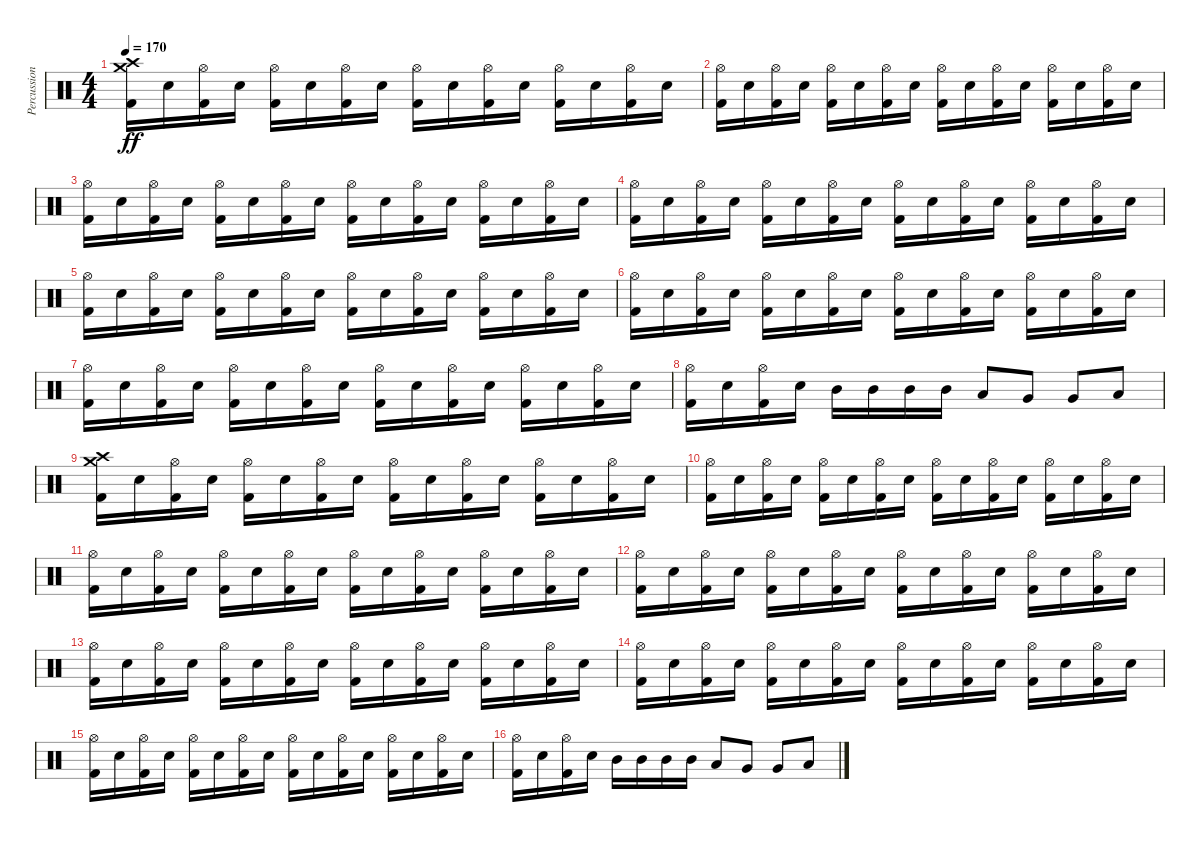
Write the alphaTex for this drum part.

\track ("Percussion" "Percussion") {instrument percussion}
\staff {score}
\articulation defaults
\ts (4 4)
\tempo 170
\clef neutral
\ks c
("Kick (hit) 2" "Crash medium (hit)" "Crash high (hit)").16{dy ff} "Electric Snare (hit)".16 ("Kick (hit) 2" "Hi-Hat (open)").16 "Electric Snare (hit)".16 ("Kick (hit) 2" "Hi-Hat (open)").16 "Electric Snare (hit)".16 ("Kick (hit) 2" "Hi-Hat (open)").16 "Electric Snare (hit)".16 ("Kick (hit) 2" "Hi-Hat (open)").16 "Electric Snare (hit)".16 ("Kick (hit) 2" "Hi-Hat (open)").16 "Electric Snare (hit)".16 ("Kick (hit) 2" "Hi-Hat (open)").16 "Electric Snare (hit)".16 ("Kick (hit) 2" "Hi-Hat (open)").16 "Electric Snare (hit)".16 |
("Kick (hit) 2" "Hi-Hat (open)").16 "Electric Snare (hit)".16 ("Kick (hit) 2" "Hi-Hat (open)").16 "Electric Snare (hit)".16 ("Kick (hit) 2" "Hi-Hat (open)").16 "Electric Snare (hit)".16 ("Kick (hit) 2" "Hi-Hat (open)").16 "Electric Snare (hit)".16 ("Kick (hit) 2" "Hi-Hat (open)").16 "Electric Snare (hit)".16 ("Kick (hit) 2" "Hi-Hat (open)").16 "Electric Snare (hit)".16 ("Kick (hit) 2" "Hi-Hat (open)").16 "Electric Snare (hit)".16 ("Kick (hit) 2" "Hi-Hat (open)").16 "Electric Snare (hit)".16 |
("Kick (hit) 2" "Hi-Hat (open)").16 "Electric Snare (hit)".16 ("Kick (hit) 2" "Hi-Hat (open)").16 "Electric Snare (hit)".16 ("Kick (hit) 2" "Hi-Hat (open)").16 "Electric Snare (hit)".16 ("Kick (hit) 2" "Hi-Hat (open)").16 "Electric Snare (hit)".16 ("Kick (hit) 2" "Hi-Hat (open)").16 "Electric Snare (hit)".16 ("Kick (hit) 2" "Hi-Hat (open)").16 "Electric Snare (hit)".16 ("Kick (hit) 2" "Hi-Hat (open)").16 "Electric Snare (hit)".16 ("Kick (hit) 2" "Hi-Hat (open)").16 "Electric Snare (hit)".16 |
("Kick (hit) 2" "Hi-Hat (open)").16 "Electric Snare (hit)".16 ("Kick (hit) 2" "Hi-Hat (open)").16 "Electric Snare (hit)".16 ("Kick (hit) 2" "Hi-Hat (open)").16 "Electric Snare (hit)".16 ("Kick (hit) 2" "Hi-Hat (open)").16 "Electric Snare (hit)".16 ("Kick (hit) 2" "Hi-Hat (open)").16 "Electric Snare (hit)".16 ("Kick (hit) 2" "Hi-Hat (open)").16 "Electric Snare (hit)".16 ("Kick (hit) 2" "Hi-Hat (open)").16 "Electric Snare (hit)".16 ("Kick (hit) 2" "Hi-Hat (open)").16 "Electric Snare (hit)".16 |
("Kick (hit) 2" "Hi-Hat (open)").16 "Electric Snare (hit)".16 ("Kick (hit) 2" "Hi-Hat (open)").16 "Electric Snare (hit)".16 ("Kick (hit) 2" "Hi-Hat (open)").16 "Electric Snare (hit)".16 ("Kick (hit) 2" "Hi-Hat (open)").16 "Electric Snare (hit)".16 ("Kick (hit) 2" "Hi-Hat (open)").16 "Electric Snare (hit)".16 ("Kick (hit) 2" "Hi-Hat (open)").16 "Electric Snare (hit)".16 ("Kick (hit) 2" "Hi-Hat (open)").16 "Electric Snare (hit)".16 ("Kick (hit) 2" "Hi-Hat (open)").16 "Electric Snare (hit)".16 |
("Kick (hit) 2" "Hi-Hat (open)").16 "Electric Snare (hit)".16 ("Kick (hit) 2" "Hi-Hat (open)").16 "Electric Snare (hit)".16 ("Kick (hit) 2" "Hi-Hat (open)").16 "Electric Snare (hit)".16 ("Kick (hit) 2" "Hi-Hat (open)").16 "Electric Snare (hit)".16 ("Kick (hit) 2" "Hi-Hat (open)").16 "Electric Snare (hit)".16 ("Kick (hit) 2" "Hi-Hat (open)").16 "Electric Snare (hit)".16 ("Kick (hit) 2" "Hi-Hat (open)").16 "Electric Snare (hit)".16 ("Kick (hit) 2" "Hi-Hat (open)").16 "Electric Snare (hit)".16 |
("Kick (hit) 2" "Hi-Hat (open)").16 "Electric Snare (hit)".16 ("Kick (hit) 2" "Hi-Hat (open)").16 "Electric Snare (hit)".16 ("Kick (hit) 2" "Hi-Hat (open)").16 "Electric Snare (hit)".16 ("Kick (hit) 2" "Hi-Hat (open)").16 "Electric Snare (hit)".16 ("Kick (hit) 2" "Hi-Hat (open)").16 "Electric Snare (hit)".16 ("Kick (hit) 2" "Hi-Hat (open)").16 "Electric Snare (hit)".16 ("Kick (hit) 2" "Hi-Hat (open)").16 "Electric Snare (hit)".16 ("Kick (hit) 2" "Hi-Hat (open)").16 "Electric Snare (hit)".16 |
("Kick (hit) 2" "Hi-Hat (open)").16 "Electric Snare (hit)".16 ("Kick (hit) 2" "Hi-Hat (open)").16 "Electric Snare (hit)".16 "Mid Tom (hit)".16 "Mid Tom (hit)".16 "Mid Tom (hit)".16 "Mid Tom (hit)".16 "Low Tom (hit)".8 "Very Low Tom (hit)".8 "Very Low Tom (hit)".8 "Low Floor Tom (hit)".8 |
("Kick (hit) 2" "Crash medium (hit)" "Crash high (hit)").16 "Electric Snare (hit)".16 ("Kick (hit) 2" "Hi-Hat (open)").16 "Electric Snare (hit)".16 ("Kick (hit) 2" "Hi-Hat (open)").16 "Electric Snare (hit)".16 ("Kick (hit) 2" "Hi-Hat (open)").16 "Electric Snare (hit)".16 ("Kick (hit) 2" "Hi-Hat (open)").16 "Electric Snare (hit)".16 ("Kick (hit) 2" "Hi-Hat (open)").16 "Electric Snare (hit)".16 ("Kick (hit) 2" "Hi-Hat (open)").16 "Electric Snare (hit)".16 ("Kick (hit) 2" "Hi-Hat (open)").16 "Electric Snare (hit)".16 |
("Kick (hit) 2" "Hi-Hat (open)").16 "Electric Snare (hit)".16 ("Kick (hit) 2" "Hi-Hat (open)").16 "Electric Snare (hit)".16 ("Kick (hit) 2" "Hi-Hat (open)").16 "Electric Snare (hit)".16 ("Kick (hit) 2" "Hi-Hat (open)").16 "Electric Snare (hit)".16 ("Kick (hit) 2" "Hi-Hat (open)").16 "Electric Snare (hit)".16 ("Kick (hit) 2" "Hi-Hat (open)").16 "Electric Snare (hit)".16 ("Kick (hit) 2" "Hi-Hat (open)").16 "Electric Snare (hit)".16 ("Kick (hit) 2" "Hi-Hat (open)").16 "Electric Snare (hit)".16 |
("Kick (hit) 2" "Hi-Hat (open)").16 "Electric Snare (hit)".16 ("Kick (hit) 2" "Hi-Hat (open)").16 "Electric Snare (hit)".16 ("Kick (hit) 2" "Hi-Hat (open)").16 "Electric Snare (hit)".16 ("Kick (hit) 2" "Hi-Hat (open)").16 "Electric Snare (hit)".16 ("Kick (hit) 2" "Hi-Hat (open)").16 "Electric Snare (hit)".16 ("Kick (hit) 2" "Hi-Hat (open)").16 "Electric Snare (hit)".16 ("Kick (hit) 2" "Hi-Hat (open)").16 "Electric Snare (hit)".16 ("Kick (hit) 2" "Hi-Hat (open)").16 "Electric Snare (hit)".16 |
("Kick (hit) 2" "Hi-Hat (open)").16 "Electric Snare (hit)".16 ("Kick (hit) 2" "Hi-Hat (open)").16 "Electric Snare (hit)".16 ("Kick (hit) 2" "Hi-Hat (open)").16 "Electric Snare (hit)".16 ("Kick (hit) 2" "Hi-Hat (open)").16 "Electric Snare (hit)".16 ("Kick (hit) 2" "Hi-Hat (open)").16 "Electric Snare (hit)".16 ("Kick (hit) 2" "Hi-Hat (open)").16 "Electric Snare (hit)".16 ("Kick (hit) 2" "Hi-Hat (open)").16 "Electric Snare (hit)".16 ("Kick (hit) 2" "Hi-Hat (open)").16 "Electric Snare (hit)".16 |
("Kick (hit) 2" "Hi-Hat (open)").16 "Electric Snare (hit)".16 ("Kick (hit) 2" "Hi-Hat (open)").16 "Electric Snare (hit)".16 ("Kick (hit) 2" "Hi-Hat (open)").16 "Electric Snare (hit)".16 ("Kick (hit) 2" "Hi-Hat (open)").16 "Electric Snare (hit)".16 ("Kick (hit) 2" "Hi-Hat (open)").16 "Electric Snare (hit)".16 ("Kick (hit) 2" "Hi-Hat (open)").16 "Electric Snare (hit)".16 ("Kick (hit) 2" "Hi-Hat (open)").16 "Electric Snare (hit)".16 ("Kick (hit) 2" "Hi-Hat (open)").16 "Electric Snare (hit)".16 |
("Kick (hit) 2" "Hi-Hat (open)").16 "Electric Snare (hit)".16 ("Kick (hit) 2" "Hi-Hat (open)").16 "Electric Snare (hit)".16 ("Kick (hit) 2" "Hi-Hat (open)").16 "Electric Snare (hit)".16 ("Kick (hit) 2" "Hi-Hat (open)").16 "Electric Snare (hit)".16 ("Kick (hit) 2" "Hi-Hat (open)").16 "Electric Snare (hit)".16 ("Kick (hit) 2" "Hi-Hat (open)").16 "Electric Snare (hit)".16 ("Kick (hit) 2" "Hi-Hat (open)").16 "Electric Snare (hit)".16 ("Kick (hit) 2" "Hi-Hat (open)").16 "Electric Snare (hit)".16 |
("Kick (hit) 2" "Hi-Hat (open)").16 "Electric Snare (hit)".16 ("Kick (hit) 2" "Hi-Hat (open)").16 "Electric Snare (hit)".16 ("Kick (hit) 2" "Hi-Hat (open)").16 "Electric Snare (hit)".16 ("Kick (hit) 2" "Hi-Hat (open)").16 "Electric Snare (hit)".16 ("Kick (hit) 2" "Hi-Hat (open)").16 "Electric Snare (hit)".16 ("Kick (hit) 2" "Hi-Hat (open)").16 "Electric Snare (hit)".16 ("Kick (hit) 2" "Hi-Hat (open)").16 "Electric Snare (hit)".16 ("Kick (hit) 2" "Hi-Hat (open)").16 "Electric Snare (hit)".16 |
("Kick (hit) 2" "Hi-Hat (open)").16 "Electric Snare (hit)".16 ("Kick (hit) 2" "Hi-Hat (open)").16 "Electric Snare (hit)".16 "Mid Tom (hit)".16 "Mid Tom (hit)".16 "Mid Tom (hit)".16 "Mid Tom (hit)".16 "Low Tom (hit)".8 "Very Low Tom (hit)".8 "Very Low Tom (hit)".8 "Low Floor Tom (hit)".8
